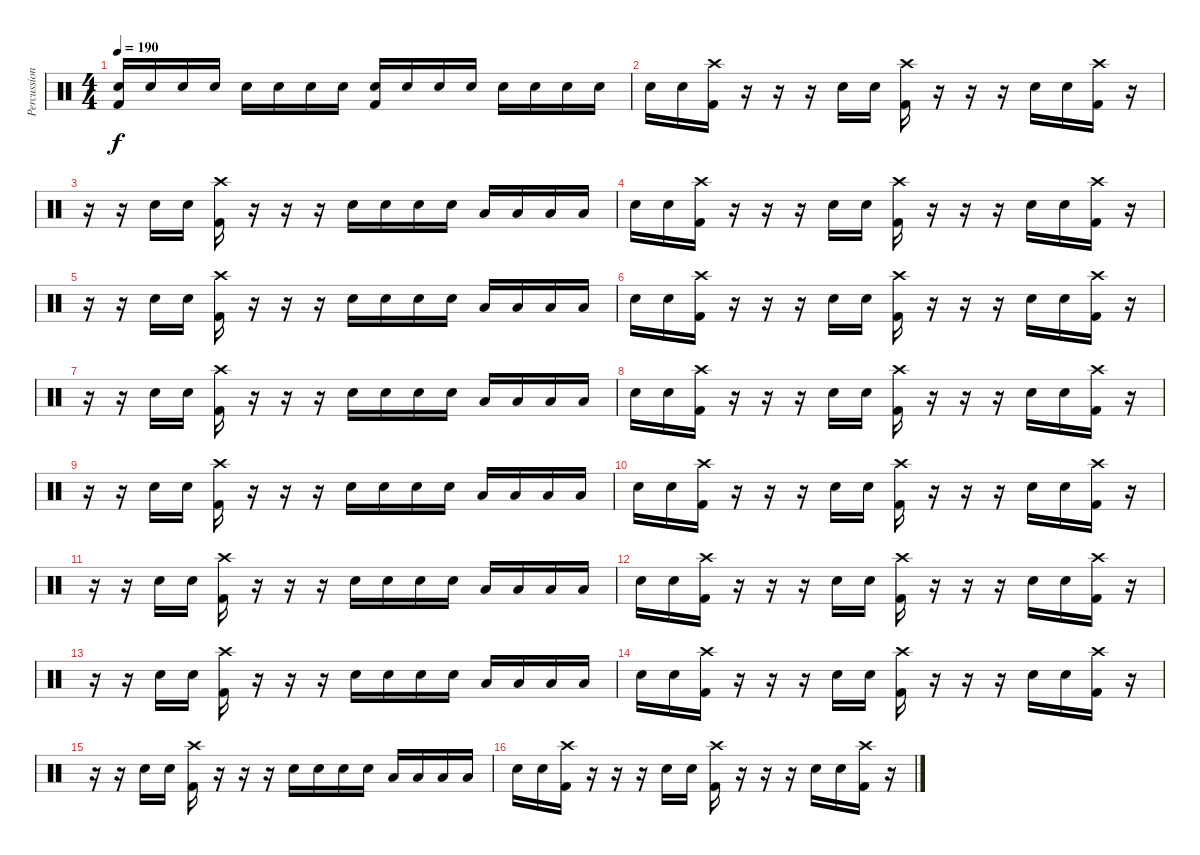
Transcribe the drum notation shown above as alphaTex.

\track ("Percussion" "Percussion") {instrument percussion}
\staff {score}
\articulation defaults
\ts (4 4)
\tempo 190
\clef neutral
\ks c
("Electric Snare (hit)" "Kick (hit) 2").16{dy f} "Electric Snare (hit)".16 "Electric Snare (hit)".16 "Electric Snare (hit)".16 "Electric Snare (hit)".16 "Electric Snare (hit)".16 "Electric Snare (hit)".16 "Electric Snare (hit)".16 ("Electric Snare (hit)" "Kick (hit) 2").16 "Electric Snare (hit)".16 "Electric Snare (hit)".16 "Electric Snare (hit)".16 "Electric Snare (hit)".16 "Electric Snare (hit)".16 "Electric Snare (hit)".16 "Electric Snare (hit)".16 |
"Electric Snare (hit)".16 "Electric Snare (hit)".16 ("Crash high (hit)" "Kick (hit) 2").16 r.16 r.16 r.16 "Electric Snare (hit)".16 "Electric Snare (hit)".16 ("Crash high (hit)" "Kick (hit) 2").16 r.16 r.16 r.16 "Electric Snare (hit)".16 "Electric Snare (hit)".16 ("Crash high (hit)" "Kick (hit) 2").16 r.16 |
r.16 r.16 "Electric Snare (hit)".16 "Electric Snare (hit)".16 ("Crash high (hit)" "Kick (hit) 2").16 r.16 r.16 r.16 "Electric Snare (hit)".16 "Electric Snare (hit)".16 "Electric Snare (hit)".16 "Electric Snare (hit)".16 "Low Tom (hit)".16 "Low Tom (hit)".16 "Low Tom (hit)".16 "Low Tom (hit)".16 |
"Electric Snare (hit)".16 "Electric Snare (hit)".16 ("Crash high (hit)" "Kick (hit) 2").16 r.16 r.16 r.16 "Electric Snare (hit)".16 "Electric Snare (hit)".16 ("Crash high (hit)" "Kick (hit) 2").16 r.16 r.16 r.16 "Electric Snare (hit)".16 "Electric Snare (hit)".16 ("Crash high (hit)" "Kick (hit) 2").16 r.16 |
r.16 r.16 "Electric Snare (hit)".16 "Electric Snare (hit)".16 ("Crash high (hit)" "Kick (hit) 2").16 r.16 r.16 r.16 "Electric Snare (hit)".16 "Electric Snare (hit)".16 "Electric Snare (hit)".16 "Electric Snare (hit)".16 "Low Tom (hit)".16 "Low Tom (hit)".16 "Low Tom (hit)".16 "Low Tom (hit)".16 |
"Electric Snare (hit)".16 "Electric Snare (hit)".16 ("Crash high (hit)" "Kick (hit) 2").16 r.16 r.16 r.16 "Electric Snare (hit)".16 "Electric Snare (hit)".16 ("Crash high (hit)" "Kick (hit) 2").16 r.16 r.16 r.16 "Electric Snare (hit)".16 "Electric Snare (hit)".16 ("Crash high (hit)" "Kick (hit) 2").16 r.16 |
r.16 r.16 "Electric Snare (hit)".16 "Electric Snare (hit)".16 ("Crash high (hit)" "Kick (hit) 2").16 r.16 r.16 r.16 "Electric Snare (hit)".16 "Electric Snare (hit)".16 "Electric Snare (hit)".16 "Electric Snare (hit)".16 "Low Tom (hit)".16 "Low Tom (hit)".16 "Low Tom (hit)".16 "Low Tom (hit)".16 |
"Electric Snare (hit)".16 "Electric Snare (hit)".16 ("Crash high (hit)" "Kick (hit) 2").16 r.16 r.16 r.16 "Electric Snare (hit)".16 "Electric Snare (hit)".16 ("Crash high (hit)" "Kick (hit) 2").16 r.16 r.16 r.16 "Electric Snare (hit)".16 "Electric Snare (hit)".16 ("Crash high (hit)" "Kick (hit) 2").16 r.16 |
r.16 r.16 "Electric Snare (hit)".16 "Electric Snare (hit)".16 ("Crash high (hit)" "Kick (hit) 2").16 r.16 r.16 r.16 "Electric Snare (hit)".16 "Electric Snare (hit)".16 "Electric Snare (hit)".16 "Electric Snare (hit)".16 "Low Tom (hit)".16 "Low Tom (hit)".16 "Low Tom (hit)".16 "Low Tom (hit)".16 |
"Electric Snare (hit)".16 "Electric Snare (hit)".16 ("Crash high (hit)" "Kick (hit) 2").16 r.16 r.16 r.16 "Electric Snare (hit)".16 "Electric Snare (hit)".16 ("Crash high (hit)" "Kick (hit) 2").16 r.16 r.16 r.16 "Electric Snare (hit)".16 "Electric Snare (hit)".16 ("Crash high (hit)" "Kick (hit) 2").16 r.16 |
r.16 r.16 "Electric Snare (hit)".16 "Electric Snare (hit)".16 ("Crash high (hit)" "Kick (hit) 2").16 r.16 r.16 r.16 "Electric Snare (hit)".16 "Electric Snare (hit)".16 "Electric Snare (hit)".16 "Electric Snare (hit)".16 "Low Tom (hit)".16 "Low Tom (hit)".16 "Low Tom (hit)".16 "Low Tom (hit)".16 |
"Electric Snare (hit)".16 "Electric Snare (hit)".16 ("Crash high (hit)" "Kick (hit) 2").16 r.16 r.16 r.16 "Electric Snare (hit)".16 "Electric Snare (hit)".16 ("Crash high (hit)" "Kick (hit) 2").16 r.16 r.16 r.16 "Electric Snare (hit)".16 "Electric Snare (hit)".16 ("Crash high (hit)" "Kick (hit) 2").16 r.16 |
r.16 r.16 "Electric Snare (hit)".16 "Electric Snare (hit)".16 ("Crash high (hit)" "Kick (hit) 2").16 r.16 r.16 r.16 "Electric Snare (hit)".16 "Electric Snare (hit)".16 "Electric Snare (hit)".16 "Electric Snare (hit)".16 "Low Tom (hit)".16 "Low Tom (hit)".16 "Low Tom (hit)".16 "Low Tom (hit)".16 |
"Electric Snare (hit)".16 "Electric Snare (hit)".16 ("Crash high (hit)" "Kick (hit) 2").16 r.16 r.16 r.16 "Electric Snare (hit)".16 "Electric Snare (hit)".16 ("Crash high (hit)" "Kick (hit) 2").16 r.16 r.16 r.16 "Electric Snare (hit)".16 "Electric Snare (hit)".16 ("Crash high (hit)" "Kick (hit) 2").16 r.16 |
r.16 r.16 "Electric Snare (hit)".16 "Electric Snare (hit)".16 ("Crash high (hit)" "Kick (hit) 2").16 r.16 r.16 r.16 "Electric Snare (hit)".16 "Electric Snare (hit)".16 "Electric Snare (hit)".16 "Electric Snare (hit)".16 "Low Tom (hit)".16 "Low Tom (hit)".16 "Low Tom (hit)".16 "Low Tom (hit)".16 |
"Electric Snare (hit)".16 "Electric Snare (hit)".16 ("Crash high (hit)" "Kick (hit) 2").16 r.16 r.16 r.16 "Electric Snare (hit)".16 "Electric Snare (hit)".16 ("Crash high (hit)" "Kick (hit) 2").16 r.16 r.16 r.16 "Electric Snare (hit)".16 "Electric Snare (hit)".16 ("Crash high (hit)" "Kick (hit) 2").16 r.16
